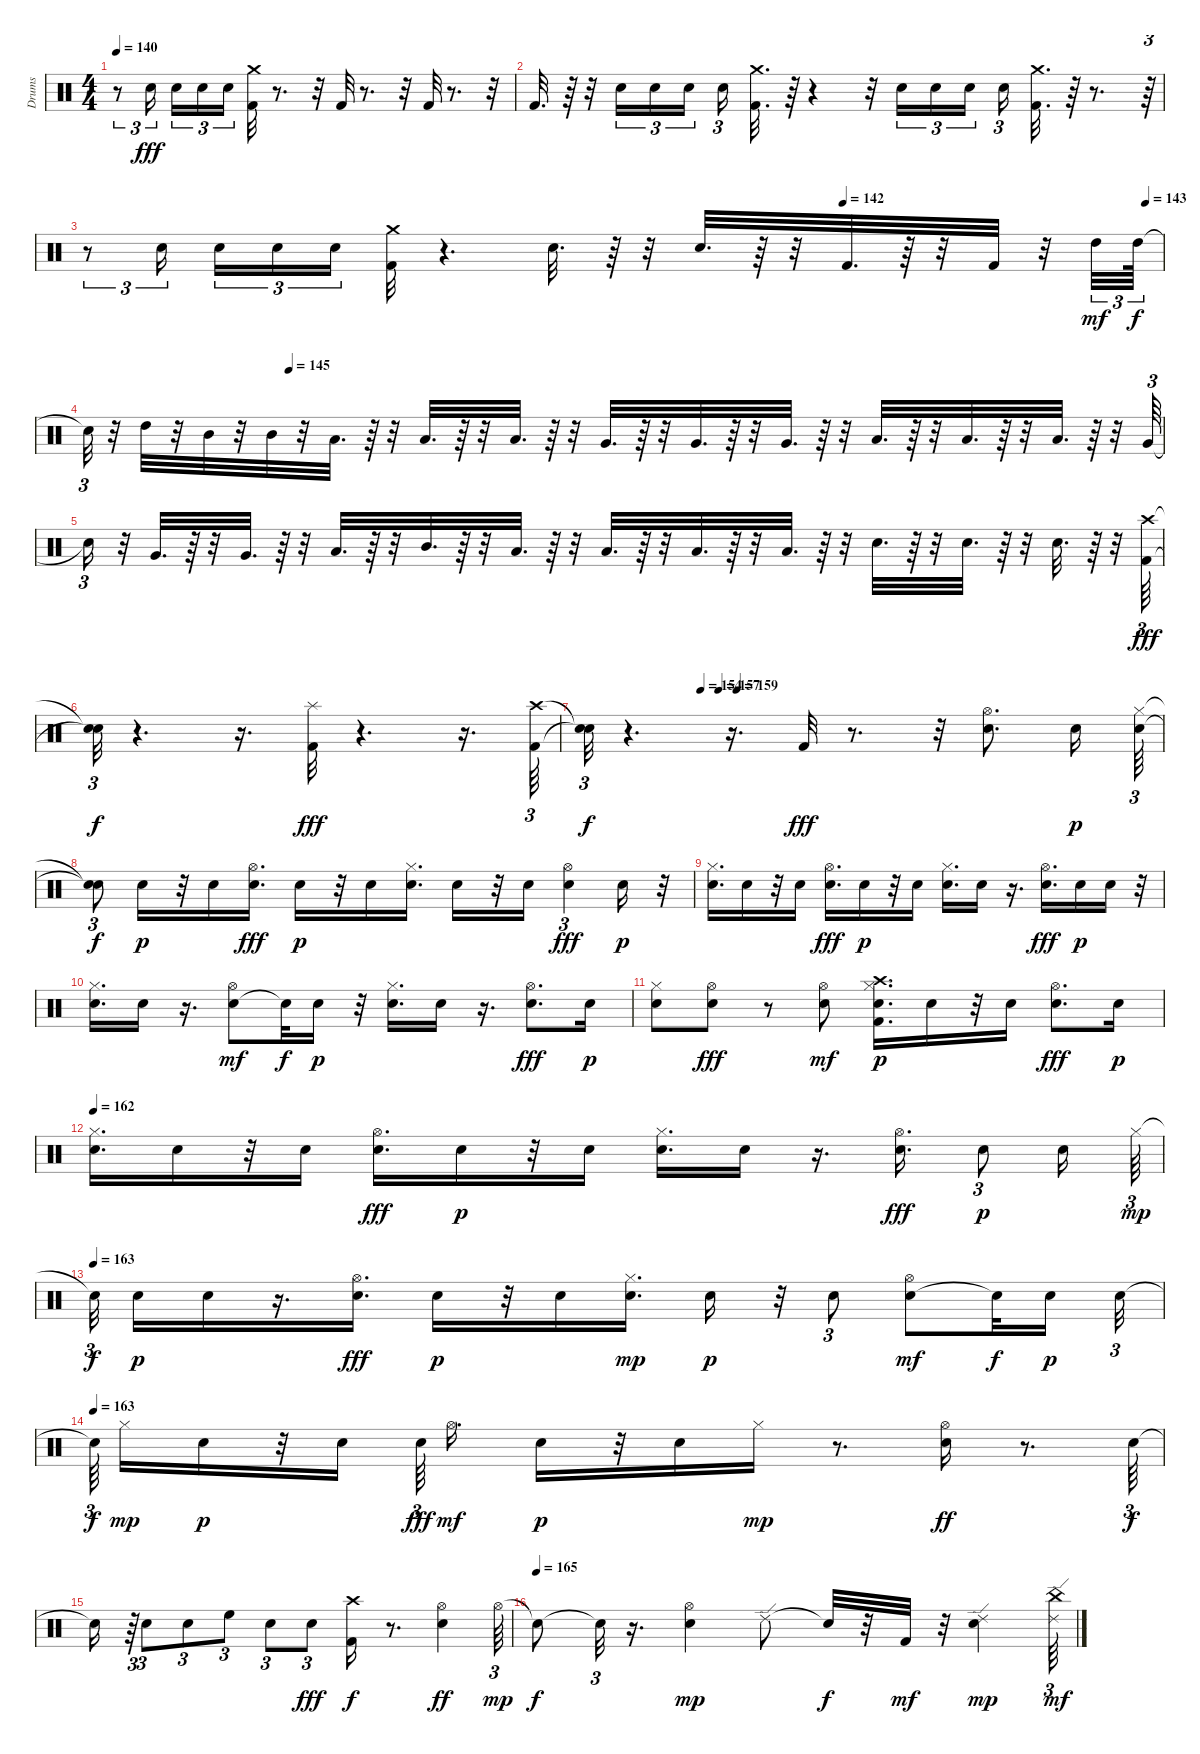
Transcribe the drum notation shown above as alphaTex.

\track ("Drums" "Drums") {instrument percussion}
\staff {score}
\articulation defaults
\ts (4 4)
\tempo 140
\clef neutral
\ks c
r.8{tu (3 2) dy fff} "Snare (hit) 2".16{tu (3 2)} "Snare (hit) 2".16{tu (3 2)} "Snare (hit) 2".16{tu (3 2)} "Snare (hit) 2".16{tu (3 2)} ("Crash medium (hit)" "Kick (hit) 2").32 r.8{d} r.32 "Kick (hit) 2".32 r.8{d} r.32 "Kick (hit) 2".32 r.8{d} r.32 |
"Kick (hit) 2".32{d} r.64 r.32 "Snare (hit) 2".16{tu (3 2)} "Snare (hit) 2".16{tu (3 2)} "Snare (hit) 2".16{tu (3 2)} "Snare (hit) 2".16{tu (3 2)} ("Kick (hit) 2" "Crash medium (hit)").32{d} r.64 r.4 r.32 "Snare (hit) 2".16{tu (3 2)} "Snare (hit) 2".16{tu (3 2)} "Snare (hit) 2".16{tu (3 2)} "Snare (hit) 2".16{tu (3 2)} ("Crash medium (hit)" "Kick (hit) 2").32{d} r.64 r.8{d} r.64{tu (3 2)} |
\tempo (142 0.703125)
\tempo (143 0.984375)
r.8{tu (3 2)} "Snare (hit) 2".16{tu (3 2)} "Snare (hit) 2".16{tu (3 2)} "Snare (hit) 2".16{tu (3 2)} "Snare (hit) 2".16{tu (3 2)} ("Kick (hit) 2" "Crash medium (hit)").32 r.4{d} "Snare (hit) 2".32{d} r.64 r.32 "Snare (hit) 2".32{d} r.64 r.32 "Kick (hit) 2".32{d} r.64 r.32 "Kick (hit) 2".32 r.32 "High Tom (hit)".32{tu (3 2) dy mf} "High Tom (hit)".64{tu (3 2) dy f} |
\tempo (145 0.1875)
"Snare (hit)"{t}.32{tu (3 2)} r.32 "High Tom (hit)".32 r.32 "Mid Tom (hit)".32 r.32 "Mid Tom (hit)".32 r.32 "Low Tom (hit)".32{d} r.64 r.32 "Low Tom (hit)".32{d} r.64 r.32 "Low Tom (hit)".32{d} r.64 r.32 "Very Low Tom (hit)".32{d} r.64 r.32 "Very Low Tom (hit)".32{d} r.64 r.32 "Very Low Tom (hit)".32{d} r.64 r.32 "Low Floor Tom (hit)".32{d} r.64 r.32 "Low Floor Tom (hit)".32{d} r.64 r.32 "Low Floor Tom (hit)".32{d} r.64 r.32 "Very Low Tom (hit)".64{tu (3 2)} |
"Snare (hit)"{t}.16{tu (3 2)} r.32 "Very Low Tom (hit)".32{d} r.64 r.32 "Very Low Tom (hit)".32{d} r.64 r.32 "Low Tom (hit)".32{d} r.64 r.32 "Mid Tom (hit)".32{d} r.64 r.32 "Low Tom (hit)".32{d} r.64 r.32 "Low Floor Tom (hit)".32{d} r.64 r.32 "Low Tom (hit)".32{d} r.64 r.32 "Low Floor Tom (hit)".32{d} r.64 r.32 "Snare (hit) 2".32{d} r.64 r.32 "Snare (hit) 2".32{d} r.64 r.32 "Snare (hit) 2".32{d} r.64 r.32 ("Kick (hit) 2" "Crash high (hit)").64{tu (3 2) dy fff} |
("Snare (hit)"{t} "Snare (hit)"{t}).32{tu (3 2) dy f} r.4{d} r.16{d} ("Kick (hit) 2" "Splash (hit)").32{dy fff} r.4{d} r.16{d} ("Crash high (hit)" "Kick (hit) 2").64{tu (3 2)} |
\tempo (154 0.203125)
\tempo (157 0.234375)
\tempo (159 0.265625)
("Snare (hit)"{t} "Snare (hit)"{t}).32{tu (3 2) dy f} r.4{d} r.16{d} "Kick (hit) 2".32{dy fff} r.8{d} r.32 ("Hi-Hat (open)" "Snare (hit) 2").8{d volume 12} "Snare (hit) 2".16{dy p} ("Hi-Hat (closed)" "Snare (hit) 2").64{tu (3 2)} |
("Snare (hit)"{t} "Snare (hit)"{t}).8{tu (3 2) dy f} "Snare (hit) 2".16{dy p} r.32 "Snare (hit) 2".16 ("Hi-Hat (open)" "Snare (hit) 2").16{d dy fff} "Snare (hit) 2".16{dy p} r.32 "Snare (hit) 2".16 ("Hi-Hat (closed)" "Snare (hit) 2").16{d} "Snare (hit) 2".16 r.32 "Snare (hit) 2".16 ("Hi-Hat (open)" "Snare (hit) 2").4{tu (3 2) dy fff} "Snare (hit) 2".16{dy p} r.32 |
("Hi-Hat (closed)" "Snare (hit) 2").16{d} "Snare (hit) 2".16 r.32 "Snare (hit) 2".16 ("Hi-Hat (open)" "Snare (hit) 2").16{d dy fff} "Snare (hit) 2".16{dy p} r.32 "Snare (hit) 2".16 ("Hi-Hat (closed)" "Snare (hit) 2").16{d} "Snare (hit) 2".16 r.16{d} ("Hi-Hat (open)" "Snare (hit) 2").16{d dy fff} "Snare (hit) 2".16{dy p} "Snare (hit) 2".16 r.32 |
("Hi-Hat (closed)" "Snare (hit) 2").16{d} "Snare (hit) 2".16 r.16{d} ("Snare (hit) 2" "Hi-Hat (open)").8{dy mf} "Snare (hit)"{t}.32{dy f} "Snare (hit) 2".16{dy p} r.32 ("Hi-Hat (closed)" "Snare (hit) 2").16{d} "Snare (hit) 2".16 r.16{d} ("Hi-Hat (open)" "Snare (hit) 2").8{d dy fff} "Snare (hit) 2".16{dy p} |
("Hi-Hat (closed)" "Snare (hit) 2").8 ("Hi-Hat (open)" "Snare (hit) 2").8{dy fff} r.8 ("Snare (hit) 2" "Hi-Hat (open)").8{dy mf} ("Crash high (hit)" "Hi-Hat (closed)" "Kick (hit) 2" "Snare (hit) 2").16{d dy p} "Snare (hit) 2".16 r.32 "Snare (hit) 2".16 ("Hi-Hat (open)" "Snare (hit) 2").8{d dy fff} "Snare (hit) 2".16{dy p} |
\tempo 162
("Hi-Hat (closed)" "Snare (hit) 2").16{d} "Snare (hit) 2".16 r.32 "Snare (hit) 2".16 ("Hi-Hat (open)" "Snare (hit) 2").16{d dy fff} "Snare (hit) 2".16{dy p} r.32 "Snare (hit) 2".16 ("Hi-Hat (closed)" "Snare (hit) 2").16{d} "Snare (hit) 2".16 r.16{d} ("Hi-Hat (open)" "Snare (hit) 2").16{d dy fff} "Snare (hit) 2".8{tu (3 2) dy p} "Snare (hit) 2".16 "Hi-Hat (closed)".64{tu (3 2) dy mp} |
\tempo (163)
"Snare (hit)"{t}.32{tu (3 2) dy f} "Snare (hit) 2".16{dy p} "Snare (hit) 2".16 r.16{d} ("Hi-Hat (open)" "Snare (hit) 2").16{d dy fff} "Snare (hit) 2".16{dy p} r.32 "Snare (hit) 2".16 ("Snare (hit) 2" "Hi-Hat (closed)").16{d dy mp} "Snare (hit) 2".16{dy p} r.32 "Snare (hit) 2".8{tu (3 2)} ("Snare (hit) 2" "Hi-Hat (open)").8{dy mf} "Snare (hit)"{t}.32{dy f} "Snare (hit) 2".16{dy p} "Snare (hit) 2".32{tu (3 2)} |
\tempo (163)
"Snare (hit)"{t}.64{tu (3 2) dy f} "Hi-Hat (closed)".16{dy mp} "Snare (hit) 2".16{dy p} r.32 "Snare (hit) 2".16 "Snare (hit) 2".64{tu (3 2) dy fff} "Hi-Hat (open)".16{d dy mf} "Snare (hit) 2".16{dy p} r.32 "Snare (hit) 2".16 "Hi-Hat (closed)".16{dy mp} r.8{d} ("Hi-Hat (open)" "Snare (hit) 2").16{dy ff} r.8{d} "Snare (hit) 2".64{tu (3 2) dy f} |
"Snare (hit)"{t}.16 r.64{tu (3 2)} "Snare (hit) 2".8{tu (3 2)} "Snare (hit) 2".8{tu (3 2)} "High Floor Tom (hit)".8{tu (3 2)} "Snare (hit) 2".8{tu (3 2)} "Snare (hit) 2".8{tu (3 2) dy fff} ("Kick (hit) 2" "Crash high (hit)").16{dy f volume 14} r.8{d} ("Hi-Hat (open)" "Snare (hit) 2").4{dy ff} "Hi-Hat (open)".64{tu (3 2) dy mp} |
\tempo (165)
"Snare (hit)"{t}.8{dy f} "Snare (hit)"{t}.32{tu (3 2)} r.16{d} ("Snare (hit) 2" "Hi-Hat (open)").4{dy mp} "Ride (edge) 2".8 "Snare (hit)"{t}.32{dy f} r.32 "Kick (hit) 2".32{dy mf} r.32 ("Snare (hit) 2" "Ride (edge) 2").4{dy mp} ("China (hit)" "Ride (edge) 2").64{tu (3 2) dy mf}
